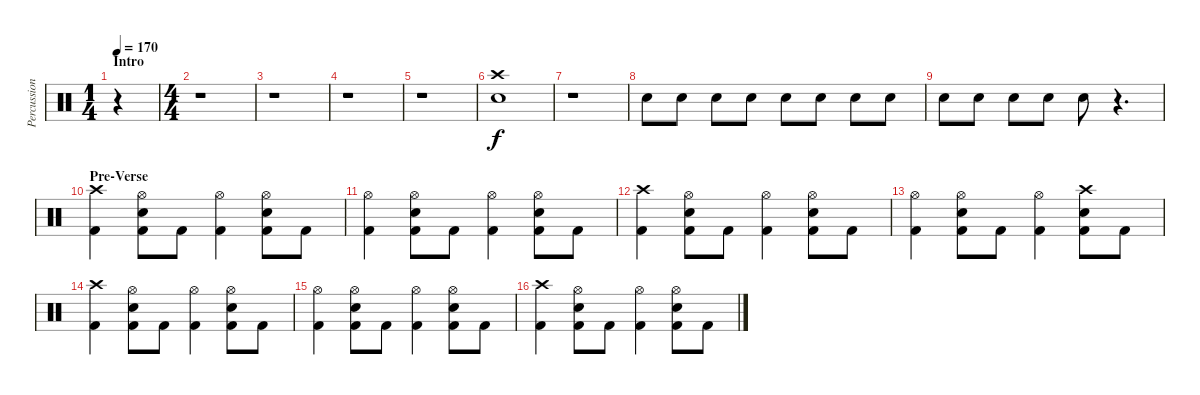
\track ("Percussion" "Percussion") {instrument percussion}
\staff {score}
\articulation defaults
\ts (1 4)
\section ("" "Intro")
\tempo 170
\clef neutral
\ks c
r.4{dy f} |
\ts (4 4)
r.1 |
r.1 |
r.1 |
r.1 |
("Crash high (hit)" "Snare (hit) 2").1 |
r.1{volume 5} |
"Snare (hit) 2".8{volume 13} "Snare (hit) 2".8 "Snare (hit) 2".8 "Snare (hit) 2".8 "Snare (hit) 2".8 "Snare (hit) 2".8 "Snare (hit) 2".8 "Snare (hit) 2".8 |
"Snare (hit) 2".8 "Snare (hit) 2".8 "Snare (hit) 2".8 "Snare (hit) 2".8 "Snare (hit) 2".8 r.4{d} |
\section ("" "Pre-Verse")
("Crash high (hit)" "Kick (hit) 2").4 ("Hi-Hat (open)" "Snare (hit) 2" "Kick (hit) 2").8 "Kick (hit) 2".8 ("Hi-Hat (open)" "Kick (hit) 2").4 ("Hi-Hat (open)" "Snare (hit) 2" "Kick (hit) 2").8 "Kick (hit) 2".8 |
("Hi-Hat (open)" "Kick (hit) 2").4 ("Hi-Hat (open)" "Snare (hit) 2" "Kick (hit) 2").8 "Kick (hit) 2".8 ("Hi-Hat (open)" "Kick (hit) 2").4 ("Hi-Hat (open)" "Snare (hit) 2" "Kick (hit) 2").8 "Kick (hit) 2".8 |
("Crash high (hit)" "Kick (hit) 2").4 ("Hi-Hat (open)" "Snare (hit) 2" "Kick (hit) 2").8 "Kick (hit) 2".8 ("Hi-Hat (open)" "Kick (hit) 2").4 ("Hi-Hat (open)" "Snare (hit) 2" "Kick (hit) 2").8 "Kick (hit) 2".8 |
("Hi-Hat (open)" "Kick (hit) 2").4 ("Hi-Hat (open)" "Snare (hit) 2" "Kick (hit) 2").8 "Kick (hit) 2".8 ("Hi-Hat (open)" "Kick (hit) 2").4 ("Crash high (hit)" "Snare (hit) 2" "Kick (hit) 2").8 "Kick (hit) 2".8 |
("Crash high (hit)" "Kick (hit) 2").4 ("Hi-Hat (open)" "Snare (hit) 2" "Kick (hit) 2").8 "Kick (hit) 2".8 ("Hi-Hat (open)" "Kick (hit) 2").4 ("Hi-Hat (open)" "Snare (hit) 2" "Kick (hit) 2").8 "Kick (hit) 2".8 |
("Hi-Hat (open)" "Kick (hit) 2").4 ("Hi-Hat (open)" "Snare (hit) 2" "Kick (hit) 2").8 "Kick (hit) 2".8 ("Hi-Hat (open)" "Kick (hit) 2").4 ("Hi-Hat (open)" "Snare (hit) 2" "Kick (hit) 2").8 "Kick (hit) 2".8 |
("Crash high (hit)" "Kick (hit) 2").4 ("Hi-Hat (open)" "Snare (hit) 2" "Kick (hit) 2").8 "Kick (hit) 2".8 ("Hi-Hat (open)" "Kick (hit) 2").4 ("Hi-Hat (open)" "Snare (hit) 2" "Kick (hit) 2").8 "Kick (hit) 2".8
